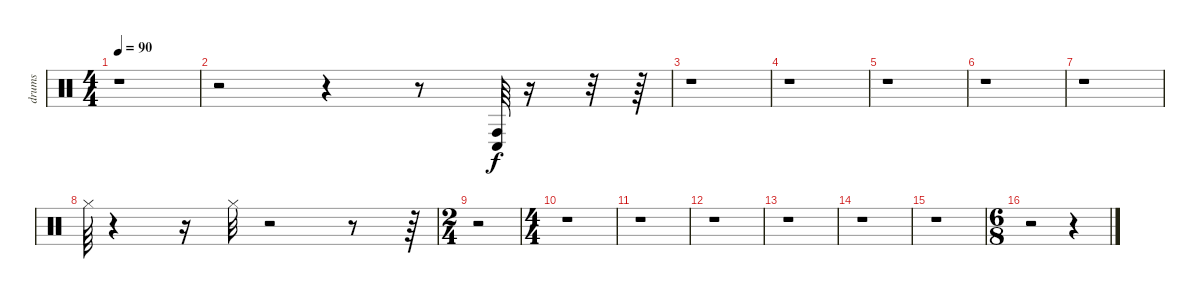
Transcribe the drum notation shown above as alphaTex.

\track ("drums" "drums") {instrument percussion}
\staff {score}
\articulation defaults
\ts (4 4)
\tempo 90
\clef neutral
\ks c
r.1{dy f} |
r.2 r.4 r.8 ("Conga high (hit)" "Conga low (hit)").64 r.16 r.32 r.64 |
r.1 |
r.1 |
r.1 |
r.1 |
r.1 |
"Hi-Hat (closed)".64 r.4 r.16 "Hi-Hat (closed)".32 r.2 r.8 r.64 |
\ts (2 4)
r.2 |
\ts (4 4)
r.1 |
r.1 |
r.1 |
r.1 |
r.1 |
r.1 |
\ts (6 8)
r.2 r.4
